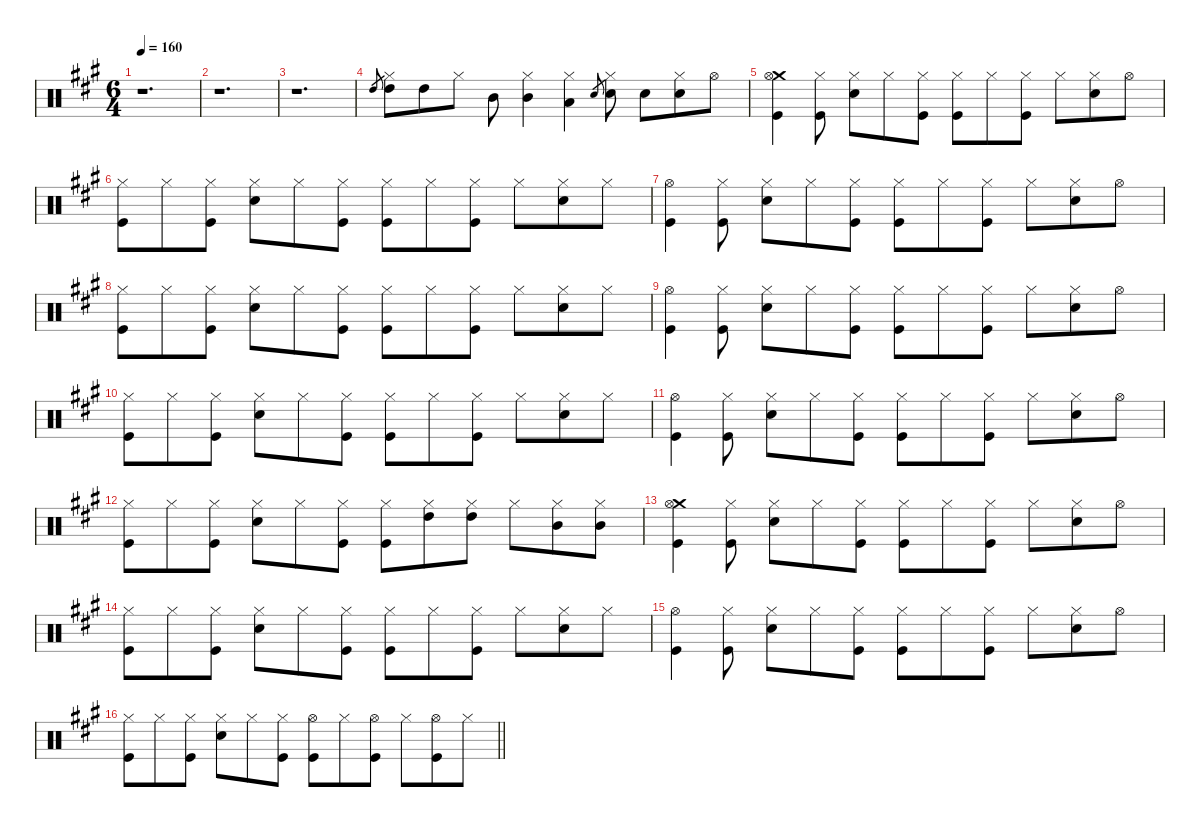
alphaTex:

\defaultSystemsLayout 4
\hideDynamics
\bracketExtendMode nobrackets
\singleTrackTrackNamePolicy hidden
\multiTrackTrackNamePolicy hidden
\firstSystemTrackNameMode fullname
\firstSystemTrackNameOrientation horizontal
\otherSystemsTrackNameOrientation horizontal
\track ("Drums" "drm.") {instrument percussion}
\staff {score}
\articulation defaults
\ts (6 4)
\beaming (8 3 3 3 3)
\tempo 160
\clef neutral
\ks f#minor
r.1{d dy mf beam Down} |
r.1{d beam Down} |
r.1{d beam Down} |
"High Tom (hit)"{acc forcenatural}.8{gr beam Up} ("Hi-Hat (closed)"{acc forcenatural} "High Tom (hit)"{acc forcenatural}).8{dy p beam Down} "High Tom (hit)"{acc forcenatural}.8{dy f beam Down} "Hi-Hat (closed)"{acc forcenatural}.8{dy p beam Down} "Mid Tom (hit)"{acc forcenatural}.8{dy f beam Down} ("Hi-Hat (closed)"{acc forcenatural} "Mid Tom (hit)"{acc forcenatural}).4{dy p beam Down} ("Hi-Hat (closed)"{acc forcenatural} "Low Tom (hit)"{acc forcenatural}).4{beam Down} "Electric Snare (hit)"{acc forcenatural}.8{gr dy mf beam Up} ("Hi-Hat (closed)"{acc forcenatural} "Snare (hit) 2"{acc forcenatural}).8{dy p beam Down} "Snare (hit) 2"{acc forcenatural}.8{dy f beam Down} ("Hi-Hat (closed)"{acc forcenatural} "Snare (hit) 2"{acc forcenatural}).8{dy p beam Down} "Hi-Hat (open)"{acc forcenatural}.8{dy f beam Down} |
("Crash medium (hit)"{acc forcenatural} "Hi-Hat (open)"{acc forcenatural} "Kick (hit)"{acc forcenatural}).4{beam Down} ("Hi-Hat (closed)"{acc forcenatural} "Kick (hit)"{acc forcenatural}).8{beam Down} ("Hi-Hat (closed)"{acc forcenatural} "Snare (hit) 2"{acc forcenatural}).8{beam Down} "Hi-Hat (closed)"{acc forcenatural}.8{beam Down} ("Hi-Hat (closed)"{acc forcenatural} "Kick (hit)"{acc forcenatural}).8{beam Down} ("Hi-Hat (closed)"{acc forcenatural} "Kick (hit)"{acc forcenatural}).8{beam Down} "Hi-Hat (closed)"{acc forcenatural}.8{beam Down} ("Hi-Hat (closed)"{acc forcenatural} "Kick (hit)"{acc forcenatural}).8{beam Down} "Hi-Hat (closed)"{acc forcenatural}.8{beam Down} ("Hi-Hat (closed)"{acc forcenatural} "Snare (hit) 2"{acc forcenatural}).8{beam Down} "Hi-Hat (open)"{acc forcenatural}.8{beam Down} |
("Hi-Hat (closed)"{acc forcenatural} "Kick (hit)"{acc forcenatural}).8{beam Down} "Hi-Hat (closed)"{acc forcenatural}.8{beam Down} ("Hi-Hat (closed)"{acc forcenatural} "Kick (hit)"{acc forcenatural}).8{beam Down} ("Hi-Hat (closed)"{acc forcenatural} "Snare (hit) 2"{acc forcenatural}).8{beam Down} "Hi-Hat (closed)"{acc forcenatural}.8{beam Down} ("Hi-Hat (closed)"{acc forcenatural} "Kick (hit)"{acc forcenatural}).8{beam Down} ("Hi-Hat (closed)"{acc forcenatural} "Kick (hit)"{acc forcenatural}).8{beam Down} "Hi-Hat (closed)"{acc forcenatural}.8{beam Down} ("Hi-Hat (closed)"{acc forcenatural} "Kick (hit)"{acc forcenatural}).8{beam Down} "Hi-Hat (closed)"{acc forcenatural}.8{beam Down} ("Hi-Hat (closed)"{acc forcenatural} "Snare (hit) 2"{acc forcenatural}).8{beam Down} "Hi-Hat (closed)"{acc forcenatural}.8{beam Down} |
("Hi-Hat (open)"{acc forcenatural} "Kick (hit)"{acc forcenatural}).4{beam Down} ("Hi-Hat (closed)"{acc forcenatural} "Kick (hit)"{acc forcenatural}).8{beam Down} ("Hi-Hat (closed)"{acc forcenatural} "Snare (hit) 2"{acc forcenatural}).8{beam Down} "Hi-Hat (closed)"{acc forcenatural}.8{beam Down} ("Hi-Hat (closed)"{acc forcenatural} "Kick (hit)"{acc forcenatural}).8{beam Down} ("Hi-Hat (closed)"{acc forcenatural} "Kick (hit)"{acc forcenatural}).8{beam Down} "Hi-Hat (closed)"{acc forcenatural}.8{beam Down} ("Hi-Hat (closed)"{acc forcenatural} "Kick (hit)"{acc forcenatural}).8{beam Down} "Hi-Hat (closed)"{acc forcenatural}.8{beam Down} ("Hi-Hat (closed)"{acc forcenatural} "Snare (hit) 2"{acc forcenatural}).8{beam Down} "Hi-Hat (open)"{acc forcenatural}.8{beam Down} |
("Hi-Hat (closed)"{acc forcenatural} "Kick (hit)"{acc forcenatural}).8{beam Down} "Hi-Hat (closed)"{acc forcenatural}.8{beam Down} ("Hi-Hat (closed)"{acc forcenatural} "Kick (hit)"{acc forcenatural}).8{beam Down} ("Hi-Hat (closed)"{acc forcenatural} "Snare (hit) 2"{acc forcenatural}).8{beam Down} "Hi-Hat (closed)"{acc forcenatural}.8{beam Down} ("Hi-Hat (closed)"{acc forcenatural} "Kick (hit)"{acc forcenatural}).8{beam Down} ("Hi-Hat (closed)"{acc forcenatural} "Kick (hit)"{acc forcenatural}).8{beam Down} "Hi-Hat (closed)"{acc forcenatural}.8{beam Down} ("Hi-Hat (closed)"{acc forcenatural} "Kick (hit)"{acc forcenatural}).8{beam Down} "Hi-Hat (closed)"{acc forcenatural}.8{beam Down} ("Hi-Hat (closed)"{acc forcenatural} "Snare (hit) 2"{acc forcenatural}).8{beam Down} "Hi-Hat (closed)"{acc forcenatural}.8{beam Down} |
("Hi-Hat (open)"{acc forcenatural} "Kick (hit)"{acc forcenatural}).4{beam Down} ("Hi-Hat (closed)"{acc forcenatural} "Kick (hit)"{acc forcenatural}).8{beam Down} ("Hi-Hat (closed)"{acc forcenatural} "Snare (hit) 2"{acc forcenatural}).8{beam Down} "Hi-Hat (closed)"{acc forcenatural}.8{beam Down} ("Hi-Hat (closed)"{acc forcenatural} "Kick (hit)"{acc forcenatural}).8{beam Down} ("Hi-Hat (closed)"{acc forcenatural} "Kick (hit)"{acc forcenatural}).8{beam Down} "Hi-Hat (closed)"{acc forcenatural}.8{beam Down} ("Hi-Hat (closed)"{acc forcenatural} "Kick (hit)"{acc forcenatural}).8{beam Down} "Hi-Hat (closed)"{acc forcenatural}.8{beam Down} ("Hi-Hat (closed)"{acc forcenatural} "Snare (hit) 2"{acc forcenatural}).8{beam Down} "Hi-Hat (open)"{acc forcenatural}.8{beam Down} |
("Hi-Hat (closed)"{acc forcenatural} "Kick (hit)"{acc forcenatural}).8{beam Down} "Hi-Hat (closed)"{acc forcenatural}.8{beam Down} ("Hi-Hat (closed)"{acc forcenatural} "Kick (hit)"{acc forcenatural}).8{beam Down} ("Hi-Hat (closed)"{acc forcenatural} "Snare (hit) 2"{acc forcenatural}).8{beam Down} "Hi-Hat (closed)"{acc forcenatural}.8{beam Down} ("Hi-Hat (closed)"{acc forcenatural} "Kick (hit)"{acc forcenatural}).8{beam Down} ("Hi-Hat (closed)"{acc forcenatural} "Kick (hit)"{acc forcenatural}).8{beam Down} "Hi-Hat (closed)"{acc forcenatural}.8{beam Down} ("Hi-Hat (closed)"{acc forcenatural} "Kick (hit)"{acc forcenatural}).8{beam Down} "Hi-Hat (closed)"{acc forcenatural}.8{beam Down} ("Hi-Hat (closed)"{acc forcenatural} "Snare (hit) 2"{acc forcenatural}).8{beam Down} "Hi-Hat (closed)"{acc forcenatural}.8{beam Down} |
("Hi-Hat (open)"{acc forcenatural} "Kick (hit)"{acc forcenatural}).4{beam Down} ("Hi-Hat (closed)"{acc forcenatural} "Kick (hit)"{acc forcenatural}).8{beam Down} ("Hi-Hat (closed)"{acc forcenatural} "Snare (hit) 2"{acc forcenatural}).8{beam Down} "Hi-Hat (closed)"{acc forcenatural}.8{beam Down} ("Hi-Hat (closed)"{acc forcenatural} "Kick (hit)"{acc forcenatural}).8{beam Down} ("Hi-Hat (closed)"{acc forcenatural} "Kick (hit)"{acc forcenatural}).8{beam Down} "Hi-Hat (closed)"{acc forcenatural}.8{beam Down} ("Hi-Hat (closed)"{acc forcenatural} "Kick (hit)"{acc forcenatural}).8{beam Down} "Hi-Hat (closed)"{acc forcenatural}.8{beam Down} ("Hi-Hat (closed)"{acc forcenatural} "Snare (hit) 2"{acc forcenatural}).8{beam Down} "Hi-Hat (open)"{acc forcenatural}.8{beam Down} |
("Hi-Hat (closed)"{acc forcenatural} "Kick (hit)"{acc forcenatural}).8{beam Down} "Hi-Hat (closed)"{acc forcenatural}.8{beam Down} ("Hi-Hat (closed)"{acc forcenatural} "Kick (hit)"{acc forcenatural}).8{beam Down} ("Hi-Hat (closed)"{acc forcenatural} "Snare (hit) 2"{acc forcenatural}).8{beam Down} "Hi-Hat (closed)"{acc forcenatural}.8{beam Down} ("Hi-Hat (closed)"{acc forcenatural} "Kick (hit)"{acc forcenatural}).8{beam Down} ("Hi-Hat (closed)"{acc forcenatural} "Kick (hit)"{acc forcenatural}).8{beam Down} ("Hi-Hat (closed)"{acc forcenatural} "High Tom (hit)"{acc forcenatural}).8{beam Down} ("Hi-Hat (closed)"{acc forcenatural} "High Tom (hit)"{acc forcenatural}).8{beam Down} "Hi-Hat (closed)"{acc forcenatural}.8{beam Down} ("Hi-Hat (closed)"{acc forcenatural} "Mid Tom (hit)"{acc forcenatural}).8{beam Down} ("Hi-Hat (closed)"{acc forcenatural} "Mid Tom (hit)"{acc forcenatural}).8{beam Down} |
("Crash medium (hit)"{acc forcenatural} "Hi-Hat (open)"{acc forcenatural} "Kick (hit)"{acc forcenatural}).4{dy mf beam Down} ("Hi-Hat (closed)"{acc forcenatural} "Kick (hit)"{acc forcenatural}).8{dy f beam Down} ("Hi-Hat (closed)"{acc forcenatural} "Snare (hit) 2"{acc forcenatural}).8{beam Down} "Hi-Hat (closed)"{acc forcenatural}.8{beam Down} ("Hi-Hat (closed)"{acc forcenatural} "Kick (hit)"{acc forcenatural}).8{beam Down} ("Hi-Hat (closed)"{acc forcenatural} "Kick (hit)"{acc forcenatural}).8{beam Down} "Hi-Hat (closed)"{acc forcenatural}.8{beam Down} ("Hi-Hat (closed)"{acc forcenatural} "Kick (hit)"{acc forcenatural}).8{beam Down} "Hi-Hat (closed)"{acc forcenatural}.8{beam Down} ("Hi-Hat (closed)"{acc forcenatural} "Snare (hit) 2"{acc forcenatural}).8{beam Down} "Hi-Hat (open)"{acc forcenatural}.8{beam Down} |
("Hi-Hat (closed)"{acc forcenatural} "Kick (hit)"{acc forcenatural}).8{beam Down} "Hi-Hat (closed)"{acc forcenatural}.8{beam Down} ("Hi-Hat (closed)"{acc forcenatural} "Kick (hit)"{acc forcenatural}).8{beam Down} ("Hi-Hat (closed)"{acc forcenatural} "Snare (hit) 2"{acc forcenatural}).8{beam Down} "Hi-Hat (closed)"{acc forcenatural}.8{beam Down} ("Hi-Hat (closed)"{acc forcenatural} "Kick (hit)"{acc forcenatural}).8{beam Down} ("Hi-Hat (closed)"{acc forcenatural} "Kick (hit)"{acc forcenatural}).8{beam Down} "Hi-Hat (closed)"{acc forcenatural}.8{beam Down} ("Hi-Hat (closed)"{acc forcenatural} "Kick (hit)"{acc forcenatural}).8{beam Down} "Hi-Hat (closed)"{acc forcenatural}.8{beam Down} ("Hi-Hat (closed)"{acc forcenatural} "Snare (hit) 2"{acc forcenatural}).8{beam Down} "Hi-Hat (closed)"{acc forcenatural}.8{beam Down} |
("Hi-Hat (open)"{acc forcenatural} "Kick (hit)"{acc forcenatural}).4{beam Down} ("Hi-Hat (closed)"{acc forcenatural} "Kick (hit)"{acc forcenatural}).8{beam Down} ("Hi-Hat (closed)"{acc forcenatural} "Snare (hit) 2"{acc forcenatural}).8{beam Down} "Hi-Hat (closed)"{acc forcenatural}.8{beam Down} ("Hi-Hat (closed)"{acc forcenatural} "Kick (hit)"{acc forcenatural}).8{beam Down} ("Hi-Hat (closed)"{acc forcenatural} "Kick (hit)"{acc forcenatural}).8{beam Down} "Hi-Hat (closed)"{acc forcenatural}.8{beam Down} ("Hi-Hat (closed)"{acc forcenatural} "Kick (hit)"{acc forcenatural}).8{beam Down} "Hi-Hat (closed)"{acc forcenatural}.8{beam Down} ("Hi-Hat (closed)"{acc forcenatural} "Snare (hit) 2"{acc forcenatural}).8{beam Down} "Hi-Hat (open)"{acc forcenatural}.8{beam Down} |
\barLineRight lightlight
("Hi-Hat (closed)"{acc forcenatural} "Kick (hit)"{acc forcenatural}).8{beam Down} "Hi-Hat (closed)"{acc forcenatural}.8{beam Down} ("Hi-Hat (closed)"{acc forcenatural} "Kick (hit)"{acc forcenatural}).8{beam Down} ("Hi-Hat (closed)"{acc forcenatural} "Snare (hit) 2"{acc forcenatural}).8{beam Down} "Hi-Hat (closed)"{acc forcenatural}.8{beam Down} ("Hi-Hat (closed)"{acc forcenatural} "Kick (hit)"{acc forcenatural}).8{beam Down} ("Hi-Hat (open)"{acc forcenatural} "Kick (hit)"{acc forcenatural}).8{beam Down} "Hi-Hat (closed)"{acc forcenatural}.8{dy mf beam Down} ("Hi-Hat (open)"{acc forcenatural} "Kick (hit)"{acc forcenatural}).8{dy f beam Down} "Hi-Hat (closed)"{acc forcenatural}.8{dy mf beam Down} ("Hi-Hat (open)"{acc forcenatural} "Kick (hit)"{acc forcenatural}).8{dy f beam Down} "Hi-Hat (closed)"{acc forcenatural}.8{dy mf beam Down}
